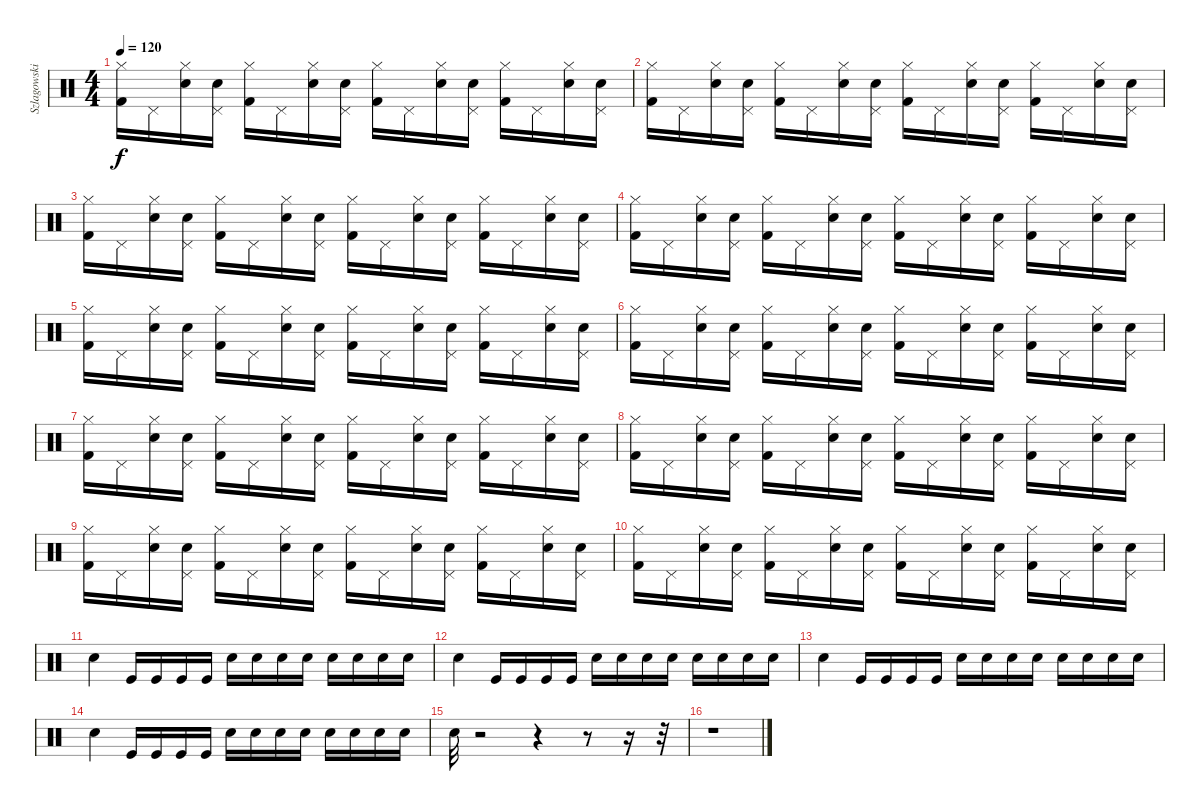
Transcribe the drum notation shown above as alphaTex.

\track ("Szlagowski" "Szlagowski") {instrument percussion}
\staff {score}
\articulation defaults
\ts (4 4)
\tempo 120
\clef neutral
\ks c
("Hi-Hat (closed)" "Kick (hit) 2").16{dy f} "Pedal Hi-Hat (hit)".16 ("Hi-Hat (closed)" "Electric Snare (hit)").16 ("Pedal Hi-Hat (hit)" "Electric Snare (hit)").16 ("Hi-Hat (closed)" "Kick (hit) 2").16 "Pedal Hi-Hat (hit)".16 ("Hi-Hat (closed)" "Electric Snare (hit)").16 ("Pedal Hi-Hat (hit)" "Electric Snare (hit)").16 ("Hi-Hat (closed)" "Kick (hit) 2").16 "Pedal Hi-Hat (hit)".16 ("Hi-Hat (closed)" "Electric Snare (hit)").16 ("Pedal Hi-Hat (hit)" "Electric Snare (hit)").16 ("Hi-Hat (closed)" "Kick (hit) 2").16 "Pedal Hi-Hat (hit)".16 ("Hi-Hat (closed)" "Electric Snare (hit)").16 ("Pedal Hi-Hat (hit)" "Electric Snare (hit)").16 |
("Hi-Hat (closed)" "Kick (hit) 2").16 "Pedal Hi-Hat (hit)".16 ("Hi-Hat (closed)" "Electric Snare (hit)").16 ("Pedal Hi-Hat (hit)" "Electric Snare (hit)").16 ("Hi-Hat (closed)" "Kick (hit) 2").16 "Pedal Hi-Hat (hit)".16 ("Hi-Hat (closed)" "Electric Snare (hit)").16 ("Pedal Hi-Hat (hit)" "Electric Snare (hit)").16 ("Hi-Hat (closed)" "Kick (hit) 2").16 "Pedal Hi-Hat (hit)".16 ("Hi-Hat (closed)" "Electric Snare (hit)").16 ("Pedal Hi-Hat (hit)" "Electric Snare (hit)").16 ("Hi-Hat (closed)" "Kick (hit) 2").16 "Pedal Hi-Hat (hit)".16 ("Hi-Hat (closed)" "Electric Snare (hit)").16 ("Pedal Hi-Hat (hit)" "Electric Snare (hit)").16 |
("Hi-Hat (closed)" "Kick (hit) 2").16 "Pedal Hi-Hat (hit)".16 ("Hi-Hat (closed)" "Electric Snare (hit)").16 ("Pedal Hi-Hat (hit)" "Electric Snare (hit)").16 ("Hi-Hat (closed)" "Kick (hit) 2").16 "Pedal Hi-Hat (hit)".16 ("Hi-Hat (closed)" "Electric Snare (hit)").16 ("Pedal Hi-Hat (hit)" "Electric Snare (hit)").16 ("Hi-Hat (closed)" "Kick (hit) 2").16 "Pedal Hi-Hat (hit)".16 ("Hi-Hat (closed)" "Electric Snare (hit)").16 ("Pedal Hi-Hat (hit)" "Electric Snare (hit)").16 ("Hi-Hat (closed)" "Kick (hit) 2").16 "Pedal Hi-Hat (hit)".16 ("Hi-Hat (closed)" "Electric Snare (hit)").16 ("Pedal Hi-Hat (hit)" "Electric Snare (hit)").16 |
("Hi-Hat (closed)" "Kick (hit) 2").16 "Pedal Hi-Hat (hit)".16 ("Hi-Hat (closed)" "Electric Snare (hit)").16 ("Pedal Hi-Hat (hit)" "Electric Snare (hit)").16 ("Hi-Hat (closed)" "Kick (hit) 2").16 "Pedal Hi-Hat (hit)".16 ("Hi-Hat (closed)" "Electric Snare (hit)").16 ("Pedal Hi-Hat (hit)" "Electric Snare (hit)").16 ("Hi-Hat (closed)" "Kick (hit) 2").16 "Pedal Hi-Hat (hit)".16 ("Hi-Hat (closed)" "Electric Snare (hit)").16 ("Pedal Hi-Hat (hit)" "Electric Snare (hit)").16 ("Hi-Hat (closed)" "Kick (hit) 2").16 "Pedal Hi-Hat (hit)".16 ("Hi-Hat (closed)" "Electric Snare (hit)").16 ("Pedal Hi-Hat (hit)" "Electric Snare (hit)").16 |
("Hi-Hat (closed)" "Kick (hit) 2").16 "Pedal Hi-Hat (hit)".16 ("Hi-Hat (closed)" "Electric Snare (hit)").16 ("Pedal Hi-Hat (hit)" "Electric Snare (hit)").16 ("Hi-Hat (closed)" "Kick (hit) 2").16 "Pedal Hi-Hat (hit)".16 ("Hi-Hat (closed)" "Electric Snare (hit)").16 ("Pedal Hi-Hat (hit)" "Electric Snare (hit)").16 ("Hi-Hat (closed)" "Kick (hit) 2").16 "Pedal Hi-Hat (hit)".16 ("Hi-Hat (closed)" "Electric Snare (hit)").16 ("Pedal Hi-Hat (hit)" "Electric Snare (hit)").16 ("Hi-Hat (closed)" "Kick (hit) 2").16 "Pedal Hi-Hat (hit)".16 ("Hi-Hat (closed)" "Electric Snare (hit)").16 ("Pedal Hi-Hat (hit)" "Electric Snare (hit)").16 |
("Hi-Hat (closed)" "Kick (hit) 2").16 "Pedal Hi-Hat (hit)".16 ("Hi-Hat (closed)" "Electric Snare (hit)").16 ("Pedal Hi-Hat (hit)" "Electric Snare (hit)").16 ("Hi-Hat (closed)" "Kick (hit) 2").16 "Pedal Hi-Hat (hit)".16 ("Hi-Hat (closed)" "Electric Snare (hit)").16 ("Pedal Hi-Hat (hit)" "Electric Snare (hit)").16 ("Hi-Hat (closed)" "Kick (hit) 2").16 "Pedal Hi-Hat (hit)".16 ("Hi-Hat (closed)" "Electric Snare (hit)").16 ("Pedal Hi-Hat (hit)" "Electric Snare (hit)").16 ("Hi-Hat (closed)" "Kick (hit) 2").16 "Pedal Hi-Hat (hit)".16 ("Hi-Hat (closed)" "Electric Snare (hit)").16 ("Pedal Hi-Hat (hit)" "Electric Snare (hit)").16 |
("Hi-Hat (closed)" "Kick (hit) 2").16 "Pedal Hi-Hat (hit)".16 ("Hi-Hat (closed)" "Electric Snare (hit)").16 ("Pedal Hi-Hat (hit)" "Electric Snare (hit)").16 ("Hi-Hat (closed)" "Kick (hit) 2").16 "Pedal Hi-Hat (hit)".16 ("Hi-Hat (closed)" "Electric Snare (hit)").16 ("Pedal Hi-Hat (hit)" "Electric Snare (hit)").16 ("Hi-Hat (closed)" "Kick (hit) 2").16 "Pedal Hi-Hat (hit)".16 ("Hi-Hat (closed)" "Electric Snare (hit)").16 ("Pedal Hi-Hat (hit)" "Electric Snare (hit)").16 ("Hi-Hat (closed)" "Kick (hit) 2").16 "Pedal Hi-Hat (hit)".16 ("Hi-Hat (closed)" "Electric Snare (hit)").16 ("Pedal Hi-Hat (hit)" "Electric Snare (hit)").16 |
("Hi-Hat (closed)" "Kick (hit) 2").16 "Pedal Hi-Hat (hit)".16 ("Hi-Hat (closed)" "Electric Snare (hit)").16 ("Pedal Hi-Hat (hit)" "Electric Snare (hit)").16 ("Hi-Hat (closed)" "Kick (hit) 2").16 "Pedal Hi-Hat (hit)".16 ("Hi-Hat (closed)" "Electric Snare (hit)").16 ("Pedal Hi-Hat (hit)" "Electric Snare (hit)").16 ("Hi-Hat (closed)" "Kick (hit) 2").16 "Pedal Hi-Hat (hit)".16 ("Hi-Hat (closed)" "Electric Snare (hit)").16 ("Pedal Hi-Hat (hit)" "Electric Snare (hit)").16 ("Hi-Hat (closed)" "Kick (hit) 2").16 "Pedal Hi-Hat (hit)".16 ("Hi-Hat (closed)" "Electric Snare (hit)").16 ("Pedal Hi-Hat (hit)" "Electric Snare (hit)").16 |
("Hi-Hat (closed)" "Kick (hit) 2").16 "Pedal Hi-Hat (hit)".16 ("Hi-Hat (closed)" "Electric Snare (hit)").16 ("Pedal Hi-Hat (hit)" "Electric Snare (hit)").16 ("Hi-Hat (closed)" "Kick (hit) 2").16 "Pedal Hi-Hat (hit)".16 ("Hi-Hat (closed)" "Electric Snare (hit)").16 ("Pedal Hi-Hat (hit)" "Electric Snare (hit)").16 ("Hi-Hat (closed)" "Kick (hit) 2").16 "Pedal Hi-Hat (hit)".16 ("Hi-Hat (closed)" "Electric Snare (hit)").16 ("Pedal Hi-Hat (hit)" "Electric Snare (hit)").16 ("Hi-Hat (closed)" "Kick (hit) 2").16 "Pedal Hi-Hat (hit)".16 ("Hi-Hat (closed)" "Electric Snare (hit)").16 ("Pedal Hi-Hat (hit)" "Electric Snare (hit)").16 |
("Hi-Hat (closed)" "Kick (hit) 2").16 "Pedal Hi-Hat (hit)".16 ("Hi-Hat (closed)" "Electric Snare (hit)").16 ("Pedal Hi-Hat (hit)" "Electric Snare (hit)").16 ("Hi-Hat (closed)" "Kick (hit) 2").16 "Pedal Hi-Hat (hit)".16 ("Hi-Hat (closed)" "Electric Snare (hit)").16 ("Pedal Hi-Hat (hit)" "Electric Snare (hit)").16 ("Hi-Hat (closed)" "Kick (hit) 2").16 "Pedal Hi-Hat (hit)".16 ("Hi-Hat (closed)" "Electric Snare (hit)").16 ("Pedal Hi-Hat (hit)" "Electric Snare (hit)").16 ("Hi-Hat (closed)" "Kick (hit) 2").16 "Pedal Hi-Hat (hit)".16 ("Hi-Hat (closed)" "Electric Snare (hit)").16 ("Pedal Hi-Hat (hit)" "Electric Snare (hit)").16 |
"Electric Snare (hit)".4 "Kick (hit)".16 "Kick (hit)".16 "Kick (hit)".16 "Kick (hit)".16 "Electric Snare (hit)".16 "Electric Snare (hit)".16 "Electric Snare (hit)".16 "Electric Snare (hit)".16 "Electric Snare (hit)".16 "Electric Snare (hit)".16 "Electric Snare (hit)".16 "Electric Snare (hit)".16 |
"Electric Snare (hit)".4 "Kick (hit)".16 "Kick (hit)".16 "Kick (hit)".16 "Kick (hit)".16 "Electric Snare (hit)".16 "Electric Snare (hit)".16 "Electric Snare (hit)".16 "Electric Snare (hit)".16 "Electric Snare (hit)".16 "Electric Snare (hit)".16 "Electric Snare (hit)".16 "Electric Snare (hit)".16 |
"Electric Snare (hit)".4 "Kick (hit)".16 "Kick (hit)".16 "Kick (hit)".16 "Kick (hit)".16 "Electric Snare (hit)".16 "Electric Snare (hit)".16 "Electric Snare (hit)".16 "Electric Snare (hit)".16 "Electric Snare (hit)".16 "Electric Snare (hit)".16 "Electric Snare (hit)".16 "Electric Snare (hit)".16 |
"Electric Snare (hit)".4 "Kick (hit)".16 "Kick (hit)".16 "Kick (hit)".16 "Kick (hit)".16 "Electric Snare (hit)".16 "Electric Snare (hit)".16 "Electric Snare (hit)".16 "Electric Snare (hit)".16 "Electric Snare (hit)".16 "Electric Snare (hit)".16 "Electric Snare (hit)".16 "Electric Snare (hit)".16 |
"Electric Snare (hit)".32 r.2 r.4 r.8 r.16 r.32 |
r.1
